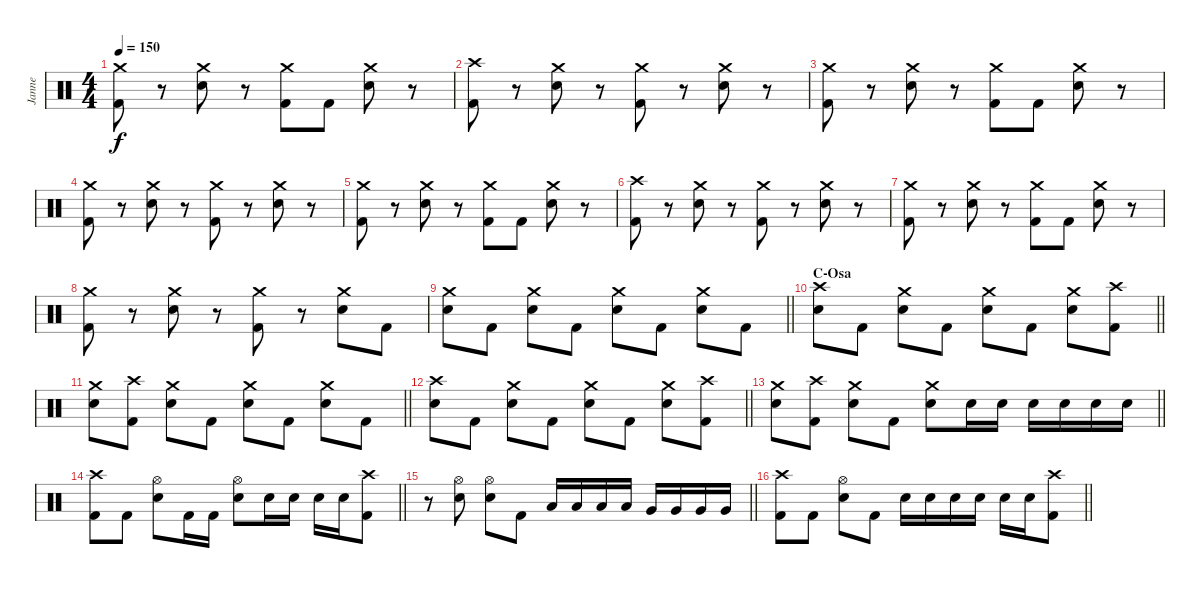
\track ("Janne" "Janne") {instrument percussion}
\staff {score}
\articulation defaults
\ts (4 4)
\tempo 150
\clef neutral
\ks c
("Crash medium (hit)" "Kick (hit) 2").8{dy f} r.8 ("Crash medium (hit)" "Electric Snare (hit)").8 r.8 ("Crash medium (hit)" "Kick (hit) 2").8 "Kick (hit) 2".8 ("Crash medium (hit)" "Electric Snare (hit)").8 r.8 |
("Crash high (hit)" "Kick (hit) 2").8 r.8 ("Crash medium (hit)" "Electric Snare (hit)").8 r.8 ("Crash medium (hit)" "Kick (hit) 2").8 r.8 ("Crash medium (hit)" "Electric Snare (hit)").8 r.8 |
("Crash medium (hit)" "Kick (hit) 2").8 r.8 ("Crash medium (hit)" "Electric Snare (hit)").8 r.8 ("Crash medium (hit)" "Kick (hit) 2").8 "Kick (hit) 2".8 ("Crash medium (hit)" "Electric Snare (hit)").8 r.8 |
("Crash medium (hit)" "Kick (hit) 2").8 r.8 ("Crash medium (hit)" "Electric Snare (hit)").8 r.8 ("Crash medium (hit)" "Kick (hit) 2").8 r.8 ("Crash medium (hit)" "Electric Snare (hit)").8 r.8 |
("Crash medium (hit)" "Kick (hit) 2").8 r.8 ("Crash medium (hit)" "Electric Snare (hit)").8 r.8 ("Crash medium (hit)" "Kick (hit) 2").8 "Kick (hit) 2".8 ("Crash medium (hit)" "Electric Snare (hit)").8 r.8 |
("Crash high (hit)" "Kick (hit) 2").8 r.8 ("Crash medium (hit)" "Electric Snare (hit)").8 r.8 ("Crash medium (hit)" "Kick (hit) 2").8 r.8 ("Crash medium (hit)" "Electric Snare (hit)").8 r.8 |
("Crash medium (hit)" "Kick (hit) 2").8 r.8 ("Crash medium (hit)" "Electric Snare (hit)").8 r.8 ("Crash medium (hit)" "Kick (hit) 2").8 "Kick (hit) 2".8 ("Crash medium (hit)" "Electric Snare (hit)").8 r.8 |
("Crash medium (hit)" "Kick (hit) 2").8 r.8 ("Crash medium (hit)" "Electric Snare (hit)").8 r.8 ("Crash medium (hit)" "Kick (hit) 2").8 r.8 ("Crash medium (hit)" "Electric Snare (hit)").8 "Kick (hit) 2".8 |
\barLineRight lightlight
("Crash medium (hit)" "Electric Snare (hit)").8 "Kick (hit) 2".8 ("Crash medium (hit)" "Electric Snare (hit)").8 "Kick (hit) 2".8 ("Crash medium (hit)" "Electric Snare (hit)").8 "Kick (hit) 2".8 ("Crash medium (hit)" "Electric Snare (hit)").8 "Kick (hit) 2".8 |
\section ("" "C-Osa")
\barLineRight lightlight
("Crash high (hit)" "Electric Snare (hit)").8 "Kick (hit) 2".8 ("Crash medium (hit)" "Electric Snare (hit)").8 "Kick (hit) 2".8 ("Crash medium (hit)" "Electric Snare (hit)").8 "Kick (hit) 2".8 ("Crash medium (hit)" "Electric Snare (hit)").8 ("Crash high (hit)" "Kick (hit) 2").8 |
\barLineRight lightlight
("Crash medium (hit)" "Electric Snare (hit)").8 ("Crash high (hit)" "Kick (hit) 2").8 ("Crash medium (hit)" "Electric Snare (hit)").8 "Kick (hit) 2".8 ("Crash medium (hit)" "Electric Snare (hit)").8 "Kick (hit) 2".8 ("Crash medium (hit)" "Electric Snare (hit)").8 "Kick (hit) 2".8 |
\barLineRight lightlight
("Crash high (hit)" "Electric Snare (hit)").8 "Kick (hit) 2".8 ("Crash medium (hit)" "Electric Snare (hit)").8 "Kick (hit) 2".8 ("Crash medium (hit)" "Electric Snare (hit)").8 "Kick (hit) 2".8 ("Crash medium (hit)" "Electric Snare (hit)").8 ("Crash high (hit)" "Kick (hit) 2").8 |
\barLineRight lightlight
("Crash medium (hit)" "Electric Snare (hit)").8 ("Crash high (hit)" "Kick (hit) 2").8 ("Crash medium (hit)" "Electric Snare (hit)").8 "Kick (hit) 2".8 ("Crash medium (hit)" "Electric Snare (hit)").8 "Electric Snare (hit)".16 "Electric Snare (hit)".16 "Electric Snare (hit)".16 "Electric Snare (hit)".16 "Electric Snare (hit)".16 "Electric Snare (hit)".16 |
\barLineRight lightlight
("Crash high (hit)" "Kick (hit) 2").8 "Kick (hit) 2".8 ("Hi-Hat (open)" "Electric Snare (hit)").8 "Kick (hit) 2".16 "Kick (hit) 2".16 ("Hi-Hat (open)" "Electric Snare (hit)").8 "Electric Snare (hit)".16 "Electric Snare (hit)".16 "Electric Snare (hit)".16 "Electric Snare (hit)".16 ("Crash high (hit)" "Kick (hit) 2").8 |
\barLineRight lightlight
r.8 ("Hi-Hat (open)" "Electric Snare (hit)").8 ("Hi-Hat (open)" "Electric Snare (hit)").8 "Kick (hit) 2".8 "Low Tom (hit)".16 "Low Tom (hit)".16 "Low Tom (hit)".16 "Low Tom (hit)".16 "Very Low Tom (hit)".16 "Very Low Tom (hit)".16 "Very Low Tom (hit)".16 "Very Low Tom (hit)".16 |
\barLineRight lightlight
("Crash high (hit)" "Kick (hit) 2").8 "Kick (hit) 2".8 ("Hi-Hat (open)" "Electric Snare (hit)").8 "Kick (hit) 2".8 "Electric Snare (hit)".16 "Electric Snare (hit)".16 "Electric Snare (hit)".16 "Electric Snare (hit)".16 "Electric Snare (hit)".16 "Electric Snare (hit)".16 ("Crash high (hit)" "Kick (hit) 2").8
